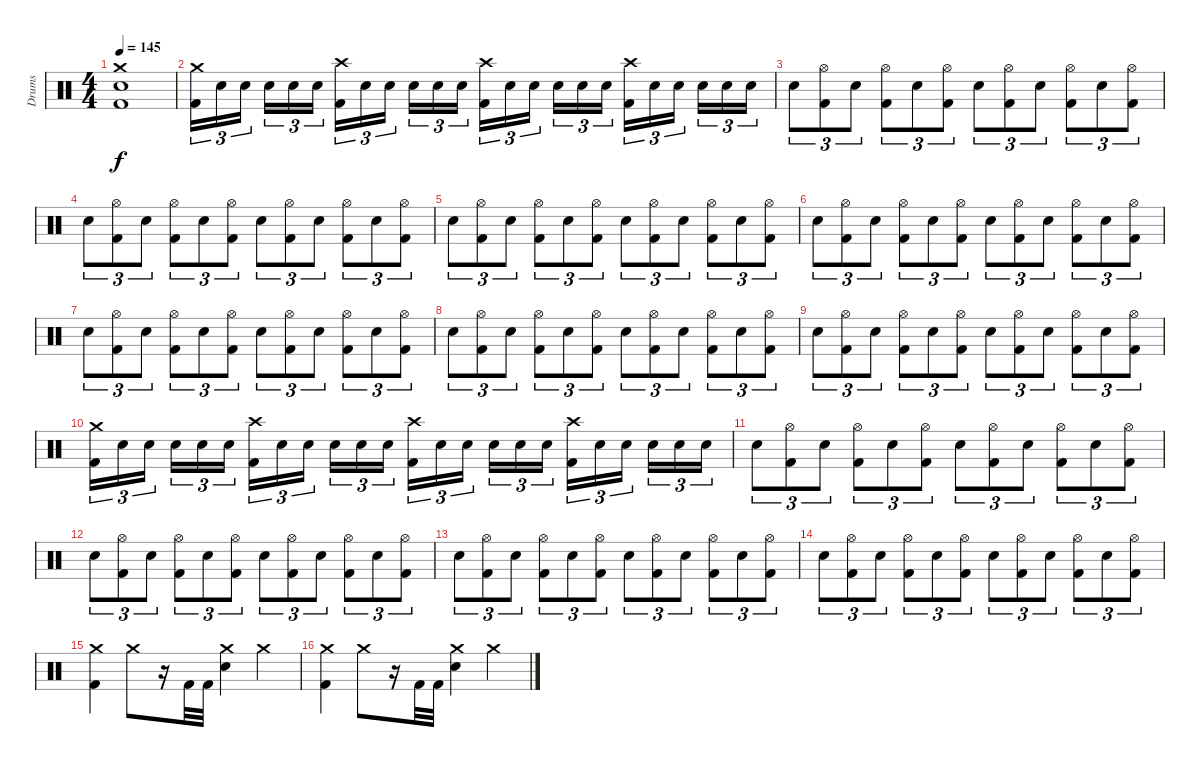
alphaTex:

\track ("Drums" "Drums") {instrument percussion}
\staff {score}
\articulation defaults
\ts (4 4)
\tempo 145
\clef neutral
\ks c
("Crash medium (hit)" "Electric Snare (hit)" "Kick (hit) 2").1{dy f} |
("Crash medium (hit)" "Kick (hit) 2").16{tu (3 2)} "Electric Snare (hit)".16{tu (3 2)} "Electric Snare (hit)".16{tu (3 2) beam splitsecondary} "Electric Snare (hit)".16{tu (3 2)} "Electric Snare (hit)".16{tu (3 2)} "Electric Snare (hit)".16{tu (3 2)} ("Crash high (hit)" "Kick (hit) 2").16{tu (3 2)} "Electric Snare (hit)".16{tu (3 2)} "Electric Snare (hit)".16{tu (3 2) beam splitsecondary} "Electric Snare (hit)".16{tu (3 2)} "Electric Snare (hit)".16{tu (3 2)} "Electric Snare (hit)".16{tu (3 2)} ("Crash high (hit)" "Kick (hit) 2").16{tu (3 2)} "Electric Snare (hit)".16{tu (3 2)} "Electric Snare (hit)".16{tu (3 2) beam splitsecondary} "Electric Snare (hit)".16{tu (3 2)} "Electric Snare (hit)".16{tu (3 2)} "Electric Snare (hit)".16{tu (3 2)} ("Crash high (hit)" "Kick (hit) 2").16{tu (3 2)} "Electric Snare (hit)".16{tu (3 2)} "Electric Snare (hit)".16{tu (3 2) beam splitsecondary} "Electric Snare (hit)".16{tu (3 2)} "Electric Snare (hit)".16{tu (3 2)} "Electric Snare (hit)".16{tu (3 2)} |
"Electric Snare (hit)".8{tu (3 2)} ("Hi-Hat (open)" "Kick (hit) 2").8{tu (3 2)} "Electric Snare (hit)".8{tu (3 2)} ("Hi-Hat (open)" "Kick (hit) 2").8{tu (3 2)} "Electric Snare (hit)".8{tu (3 2)} ("Hi-Hat (open)" "Kick (hit) 2").8{tu (3 2)} "Electric Snare (hit)".8{tu (3 2)} ("Hi-Hat (open)" "Kick (hit) 2").8{tu (3 2)} "Electric Snare (hit)".8{tu (3 2)} ("Hi-Hat (open)" "Kick (hit) 2").8{tu (3 2)} "Electric Snare (hit)".8{tu (3 2)} ("Hi-Hat (open)" "Kick (hit) 2").8{tu (3 2)} |
"Electric Snare (hit)".8{tu (3 2)} ("Hi-Hat (open)" "Kick (hit) 2").8{tu (3 2)} "Electric Snare (hit)".8{tu (3 2)} ("Hi-Hat (open)" "Kick (hit) 2").8{tu (3 2)} "Electric Snare (hit)".8{tu (3 2)} ("Hi-Hat (open)" "Kick (hit) 2").8{tu (3 2)} "Electric Snare (hit)".8{tu (3 2)} ("Hi-Hat (open)" "Kick (hit) 2").8{tu (3 2)} "Electric Snare (hit)".8{tu (3 2)} ("Hi-Hat (open)" "Kick (hit) 2").8{tu (3 2)} "Electric Snare (hit)".8{tu (3 2)} ("Hi-Hat (open)" "Kick (hit) 2").8{tu (3 2)} |
"Electric Snare (hit)".8{tu (3 2)} ("Hi-Hat (open)" "Kick (hit) 2").8{tu (3 2)} "Electric Snare (hit)".8{tu (3 2)} ("Hi-Hat (open)" "Kick (hit) 2").8{tu (3 2)} "Electric Snare (hit)".8{tu (3 2)} ("Hi-Hat (open)" "Kick (hit) 2").8{tu (3 2)} "Electric Snare (hit)".8{tu (3 2)} ("Hi-Hat (open)" "Kick (hit) 2").8{tu (3 2)} "Electric Snare (hit)".8{tu (3 2)} ("Hi-Hat (open)" "Kick (hit) 2").8{tu (3 2)} "Electric Snare (hit)".8{tu (3 2)} ("Hi-Hat (open)" "Kick (hit) 2").8{tu (3 2)} |
"Electric Snare (hit)".8{tu (3 2)} ("Hi-Hat (open)" "Kick (hit) 2").8{tu (3 2)} "Electric Snare (hit)".8{tu (3 2)} ("Hi-Hat (open)" "Kick (hit) 2").8{tu (3 2)} "Electric Snare (hit)".8{tu (3 2)} ("Hi-Hat (open)" "Kick (hit) 2").8{tu (3 2)} "Electric Snare (hit)".8{tu (3 2)} ("Hi-Hat (open)" "Kick (hit) 2").8{tu (3 2)} "Electric Snare (hit)".8{tu (3 2)} ("Hi-Hat (open)" "Kick (hit) 2").8{tu (3 2)} "Electric Snare (hit)".8{tu (3 2)} ("Hi-Hat (open)" "Kick (hit) 2").8{tu (3 2)} |
"Electric Snare (hit)".8{tu (3 2)} ("Hi-Hat (open)" "Kick (hit) 2").8{tu (3 2)} "Electric Snare (hit)".8{tu (3 2)} ("Hi-Hat (open)" "Kick (hit) 2").8{tu (3 2)} "Electric Snare (hit)".8{tu (3 2)} ("Hi-Hat (open)" "Kick (hit) 2").8{tu (3 2)} "Electric Snare (hit)".8{tu (3 2)} ("Hi-Hat (open)" "Kick (hit) 2").8{tu (3 2)} "Electric Snare (hit)".8{tu (3 2)} ("Hi-Hat (open)" "Kick (hit) 2").8{tu (3 2)} "Electric Snare (hit)".8{tu (3 2)} ("Hi-Hat (open)" "Kick (hit) 2").8{tu (3 2)} |
"Electric Snare (hit)".8{tu (3 2)} ("Hi-Hat (open)" "Kick (hit) 2").8{tu (3 2)} "Electric Snare (hit)".8{tu (3 2)} ("Hi-Hat (open)" "Kick (hit) 2").8{tu (3 2)} "Electric Snare (hit)".8{tu (3 2)} ("Hi-Hat (open)" "Kick (hit) 2").8{tu (3 2)} "Electric Snare (hit)".8{tu (3 2)} ("Hi-Hat (open)" "Kick (hit) 2").8{tu (3 2)} "Electric Snare (hit)".8{tu (3 2)} ("Hi-Hat (open)" "Kick (hit) 2").8{tu (3 2)} "Electric Snare (hit)".8{tu (3 2)} ("Hi-Hat (open)" "Kick (hit) 2").8{tu (3 2)} |
"Electric Snare (hit)".8{tu (3 2)} ("Hi-Hat (open)" "Kick (hit) 2").8{tu (3 2)} "Electric Snare (hit)".8{tu (3 2)} ("Hi-Hat (open)" "Kick (hit) 2").8{tu (3 2)} "Electric Snare (hit)".8{tu (3 2)} ("Hi-Hat (open)" "Kick (hit) 2").8{tu (3 2)} "Electric Snare (hit)".8{tu (3 2)} ("Hi-Hat (open)" "Kick (hit) 2").8{tu (3 2)} "Electric Snare (hit)".8{tu (3 2)} ("Hi-Hat (open)" "Kick (hit) 2").8{tu (3 2)} "Electric Snare (hit)".8{tu (3 2)} ("Hi-Hat (open)" "Kick (hit) 2").8{tu (3 2)} |
("Crash medium (hit)" "Kick (hit) 2").16{tu (3 2)} "Electric Snare (hit)".16{tu (3 2)} "Electric Snare (hit)".16{tu (3 2) beam splitsecondary} "Electric Snare (hit)".16{tu (3 2)} "Electric Snare (hit)".16{tu (3 2)} "Electric Snare (hit)".16{tu (3 2)} ("Crash high (hit)" "Kick (hit) 2").16{tu (3 2)} "Electric Snare (hit)".16{tu (3 2)} "Electric Snare (hit)".16{tu (3 2) beam splitsecondary} "Electric Snare (hit)".16{tu (3 2)} "Electric Snare (hit)".16{tu (3 2)} "Electric Snare (hit)".16{tu (3 2)} ("Crash high (hit)" "Kick (hit) 2").16{tu (3 2)} "Electric Snare (hit)".16{tu (3 2)} "Electric Snare (hit)".16{tu (3 2) beam splitsecondary} "Electric Snare (hit)".16{tu (3 2)} "Electric Snare (hit)".16{tu (3 2)} "Electric Snare (hit)".16{tu (3 2)} ("Crash high (hit)" "Kick (hit) 2").16{tu (3 2)} "Electric Snare (hit)".16{tu (3 2)} "Electric Snare (hit)".16{tu (3 2) beam splitsecondary} "Electric Snare (hit)".16{tu (3 2)} "Electric Snare (hit)".16{tu (3 2)} "Electric Snare (hit)".16{tu (3 2)} |
"Electric Snare (hit)".8{tu (3 2)} ("Hi-Hat (open)" "Kick (hit) 2").8{tu (3 2)} "Electric Snare (hit)".8{tu (3 2)} ("Hi-Hat (open)" "Kick (hit) 2").8{tu (3 2)} "Electric Snare (hit)".8{tu (3 2)} ("Hi-Hat (open)" "Kick (hit) 2").8{tu (3 2)} "Electric Snare (hit)".8{tu (3 2)} ("Hi-Hat (open)" "Kick (hit) 2").8{tu (3 2)} "Electric Snare (hit)".8{tu (3 2)} ("Hi-Hat (open)" "Kick (hit) 2").8{tu (3 2)} "Electric Snare (hit)".8{tu (3 2)} ("Hi-Hat (open)" "Kick (hit) 2").8{tu (3 2)} |
"Electric Snare (hit)".8{tu (3 2)} ("Hi-Hat (open)" "Kick (hit) 2").8{tu (3 2)} "Electric Snare (hit)".8{tu (3 2)} ("Hi-Hat (open)" "Kick (hit) 2").8{tu (3 2)} "Electric Snare (hit)".8{tu (3 2)} ("Hi-Hat (open)" "Kick (hit) 2").8{tu (3 2)} "Electric Snare (hit)".8{tu (3 2)} ("Hi-Hat (open)" "Kick (hit) 2").8{tu (3 2)} "Electric Snare (hit)".8{tu (3 2)} ("Hi-Hat (open)" "Kick (hit) 2").8{tu (3 2)} "Electric Snare (hit)".8{tu (3 2)} ("Hi-Hat (open)" "Kick (hit) 2").8{tu (3 2)} |
"Electric Snare (hit)".8{tu (3 2)} ("Hi-Hat (open)" "Kick (hit) 2").8{tu (3 2)} "Electric Snare (hit)".8{tu (3 2)} ("Hi-Hat (open)" "Kick (hit) 2").8{tu (3 2)} "Electric Snare (hit)".8{tu (3 2)} ("Hi-Hat (open)" "Kick (hit) 2").8{tu (3 2)} "Electric Snare (hit)".8{tu (3 2)} ("Hi-Hat (open)" "Kick (hit) 2").8{tu (3 2)} "Electric Snare (hit)".8{tu (3 2)} ("Hi-Hat (open)" "Kick (hit) 2").8{tu (3 2)} "Electric Snare (hit)".8{tu (3 2)} ("Hi-Hat (open)" "Kick (hit) 2").8{tu (3 2)} |
"Electric Snare (hit)".8{tu (3 2)} ("Hi-Hat (open)" "Kick (hit) 2").8{tu (3 2)} "Electric Snare (hit)".8{tu (3 2)} ("Hi-Hat (open)" "Kick (hit) 2").8{tu (3 2)} "Electric Snare (hit)".8{tu (3 2)} ("Hi-Hat (open)" "Kick (hit) 2").8{tu (3 2)} "Electric Snare (hit)".8{tu (3 2)} ("Hi-Hat (open)" "Kick (hit) 2").8{tu (3 2)} "Electric Snare (hit)".8{tu (3 2)} ("Hi-Hat (open)" "Kick (hit) 2").8{tu (3 2)} "Electric Snare (hit)".8{tu (3 2)} ("Hi-Hat (open)" "Kick (hit) 2").8{tu (3 2)} |
("Crash medium (hit)" "Kick (hit) 2").4 "Crash medium (hit)".8 r.16 "Kick (hit) 2".32 "Kick (hit) 2".32 ("Crash medium (hit)" "Electric Snare (hit)").4 "Crash medium (hit)".4 |
("Crash medium (hit)" "Kick (hit) 2").4 "Crash medium (hit)".8 r.16 "Kick (hit) 2".32 "Kick (hit) 2".32 ("Crash medium (hit)" "Electric Snare (hit)").4 "Crash medium (hit)".4
